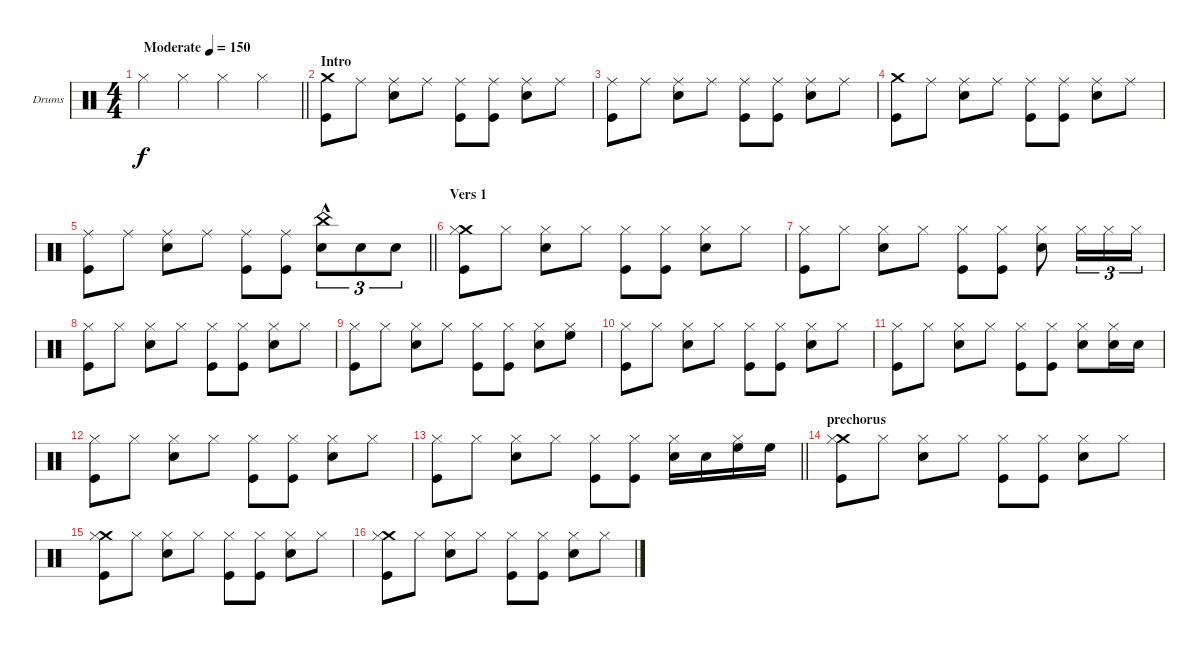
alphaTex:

\bracketExtendMode groupsimilarinstruments
\firstSystemTrackNameOrientation horizontal
\otherSystemsTrackNameOrientation horizontal
\track ("Drumkit" "Drums") {instrument percussion}
\staff {score}
\articulation defaults
\ts (4 4)
\beaming (8 2 2 2 2)
\tempo (150 "Moderate")
\clef neutral
\barLineRight lightlight
\ks c "Hi-Hat (closed)".4{dy f} "Hi-Hat (closed)".4 "Hi-Hat (closed)".4 "Hi-Hat (closed)".4
|
\section ("" "Intro")
("Crash medium (hit)" "Kick (hit)").8 "Ride (middle)".8 ("Ride (middle)" "Snare (hit) 2").8 "Ride (middle)".8 ("Ride (middle)" "Kick (hit)").8 ("Ride (middle)" "Kick (hit)").8 ("Ride (middle)" "Snare (hit) 2").8 "Ride (middle)".8 |
("Ride (middle)" "Kick (hit)").8 "Ride (middle)".8 ("Ride (middle)" "Snare (hit) 2").8 "Ride (middle)".8 ("Ride (middle)" "Kick (hit)").8 ("Ride (middle)" "Kick (hit)").8 ("Ride (middle)" "Snare (hit) 2").8 "Ride (middle)".8 |
("Crash medium (hit)" "Kick (hit)").8 "Ride (middle)".8 ("Ride (middle)" "Snare (hit) 2").8 "Ride (middle)".8 ("Ride (middle)" "Kick (hit)").8 ("Ride (middle)" "Kick (hit)").8 ("Ride (middle)" "Snare (hit) 2").8 "Ride (middle)".8 |
\barLineRight lightlight
("Ride (middle)" "Kick (hit)").8 "Ride (middle)".8 ("Ride (middle)" "Snare (hit) 2").8 "Ride (middle)".8 ("Ride (middle)" "Kick (hit)").8 ("Ride (middle)" "Kick (hit)").8 ("Snare (hit) 2"{hac} "China (hit)").8{tu (3 2)} "Snare (hit) 2".8{tu (3 2)} "Snare (hit) 2".8{tu (3 2)} |
\section ("" "Vers 1")
("Crash medium (hit)" "Kick (hit)" "Hi-Hat (closed)").8 "Hi-Hat (closed)".8 ("Snare (hit) 2" "Hi-Hat (closed)").8 "Hi-Hat (closed)".8 ("Kick (hit)" "Hi-Hat (closed)").8 ("Kick (hit)" "Hi-Hat (closed)").8 ("Snare (hit) 2" "Hi-Hat (closed)").8 "Hi-Hat (closed)".8 |
("Kick (hit)" "Hi-Hat (closed)").8 "Hi-Hat (closed)".8 ("Snare (hit) 2" "Hi-Hat (closed)").8 "Hi-Hat (closed)".8 ("Kick (hit)" "Hi-Hat (closed)").8 ("Kick (hit)" "Hi-Hat (closed)").8 ("Snare (hit) 2" "Hi-Hat (closed)").8 "Hi-Hat (closed)".16{tu (3 2)} "Hi-Hat (closed)".16{tu (3 2)} "Hi-Hat (closed)".16{tu (3 2)} |
("Hi-Hat (closed)" "Kick (hit)").8 "Hi-Hat (closed)".8 ("Snare (hit) 2" "Hi-Hat (closed)").8 "Hi-Hat (closed)".8 ("Kick (hit)" "Hi-Hat (closed)").8 ("Kick (hit)" "Hi-Hat (closed)").8 ("Snare (hit) 2" "Hi-Hat (closed)").8 "Hi-Hat (closed)".8 |
("Kick (hit)" "Hi-Hat (closed)").8 "Hi-Hat (closed)".8 ("Snare (hit) 2" "Hi-Hat (closed)").8 "Hi-Hat (closed)".8 ("Kick (hit)" "Hi-Hat (closed)").8 ("Kick (hit)" "Hi-Hat (closed)").8 ("Snare (hit) 2" "Hi-Hat (closed)").8 ("High Floor Tom (hit)" "Hi-Hat (closed)").8 |
("Kick (hit)" "Hi-Hat (closed)").8 "Hi-Hat (closed)".8 ("Snare (hit) 2" "Hi-Hat (closed)").8 "Hi-Hat (closed)".8 ("Kick (hit)" "Hi-Hat (closed)").8 ("Kick (hit)" "Hi-Hat (closed)").8 ("Snare (hit) 2" "Hi-Hat (closed)").8 "Hi-Hat (closed)".8 |
("Kick (hit)" "Hi-Hat (closed)").8 "Hi-Hat (closed)".8 ("Snare (hit) 2" "Hi-Hat (closed)").8 "Hi-Hat (closed)".8 ("Kick (hit)" "Hi-Hat (closed)").8 ("Kick (hit)" "Hi-Hat (closed)").8 ("Snare (hit) 2" "Hi-Hat (closed)").8 ("Snare (hit) 2" "Hi-Hat (closed)").16 "Snare (hit) 2".16 |
("Kick (hit)" "Hi-Hat (closed)").8 "Hi-Hat (closed)".8 ("Snare (hit) 2" "Hi-Hat (closed)").8 "Hi-Hat (closed)".8 ("Kick (hit)" "Hi-Hat (closed)").8 ("Kick (hit)" "Hi-Hat (closed)").8 ("Snare (hit) 2" "Hi-Hat (closed)").8 "Hi-Hat (closed)".8 |
\barLineRight lightlight
("Kick (hit)" "Hi-Hat (closed)").8 "Hi-Hat (closed)".8 ("Snare (hit) 2" "Hi-Hat (closed)").8 "Hi-Hat (closed)".8 ("Kick (hit)" "Hi-Hat (closed)").8 ("Kick (hit)" "Hi-Hat (closed)").8 ("Snare (hit) 2" "Hi-Hat (closed)").16 "Snare (hit) 2".16 ("High Floor Tom (hit)" "Hi-Hat (closed)").16 "High Floor Tom (hit)".16 |
\section ("" "prechorus")
("Crash medium (hit)" "Kick (hit)" "Hi-Hat (closed)").8 "Hi-Hat (closed)".8 ("Snare (hit) 2" "Hi-Hat (closed)").8 "Hi-Hat (closed)".8 ("Kick (hit)" "Hi-Hat (closed)").8 ("Kick (hit)" "Hi-Hat (closed)").8 ("Snare (hit) 2" "Hi-Hat (closed)").8 "Hi-Hat (closed)".8 |
("Crash medium (hit)" "Kick (hit)" "Hi-Hat (closed)").8 "Hi-Hat (closed)".8 ("Snare (hit) 2" "Hi-Hat (closed)").8 "Hi-Hat (closed)".8 ("Kick (hit)" "Hi-Hat (closed)").8 ("Kick (hit)" "Hi-Hat (closed)").8 ("Snare (hit) 2" "Hi-Hat (closed)").8 "Hi-Hat (closed)".8 |
("Crash medium (hit)" "Kick (hit)" "Hi-Hat (closed)").8 "Hi-Hat (closed)".8 ("Snare (hit) 2" "Hi-Hat (closed)").8 "Hi-Hat (closed)".8 ("Kick (hit)" "Hi-Hat (closed)").8 ("Kick (hit)" "Hi-Hat (closed)").8 ("Snare (hit) 2" "Hi-Hat (closed)").8 "Hi-Hat (closed)".8
